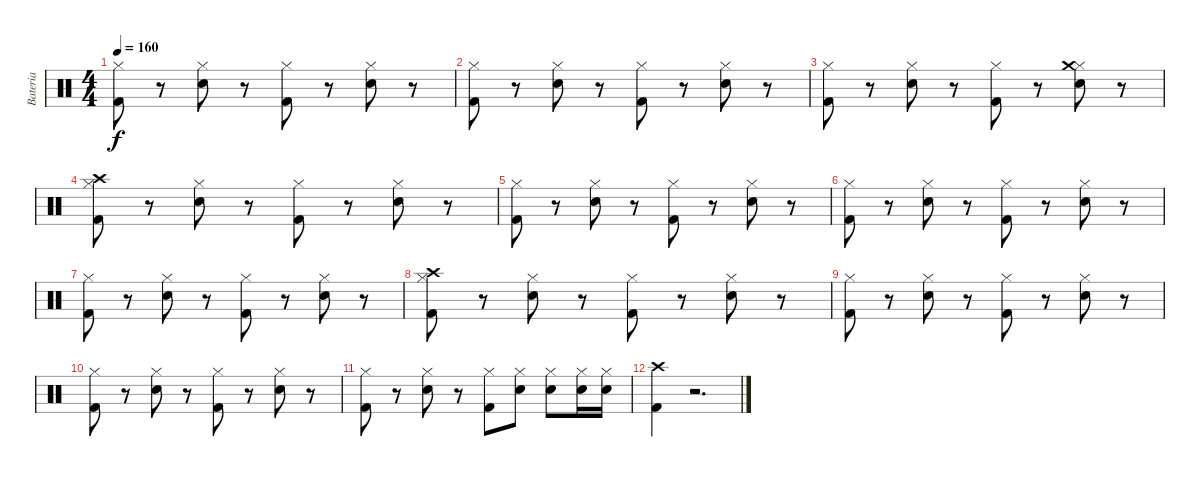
\track ("Bateria" "Bateria") {instrument percussion}
\staff {score}
\articulation defaults
\ts (4 4)
\tempo 160
\clef neutral
\ks c
("Hi-Hat (closed)" "Kick (hit) 2").8{dy f} r.8 ("Hi-Hat (closed)" "Snare (hit) 2").8 r.8 ("Hi-Hat (closed)" "Kick (hit) 2").8 r.8 ("Hi-Hat (closed)" "Snare (hit) 2").8 r.8 |
("Hi-Hat (closed)" "Kick (hit) 2").8 r.8 ("Hi-Hat (closed)" "Snare (hit) 2").8 r.8 ("Hi-Hat (closed)" "Kick (hit) 2").8 r.8 ("Hi-Hat (closed)" "Snare (hit) 2").8 r.8 |
("Hi-Hat (closed)" "Kick (hit) 2").8 r.8 ("Hi-Hat (closed)" "Snare (hit) 2").8 r.8 ("Hi-Hat (closed)" "Kick (hit) 2").8 r.8 ("Hi-Hat (closed)" "Crash medium (hit)" "Snare (hit) 2").8 r.8 |
("Hi-Hat (closed)" "Crash high (hit)" "Kick (hit) 2").8 r.8 ("Hi-Hat (closed)" "Snare (hit) 2").8 r.8 ("Hi-Hat (closed)" "Kick (hit) 2").8 r.8 ("Hi-Hat (closed)" "Snare (hit) 2").8 r.8 |
("Hi-Hat (closed)" "Kick (hit) 2").8 r.8 ("Hi-Hat (closed)" "Snare (hit) 2").8 r.8 ("Hi-Hat (closed)" "Kick (hit) 2").8 r.8 ("Hi-Hat (closed)" "Snare (hit) 2").8 r.8 |
("Hi-Hat (closed)" "Kick (hit) 2").8 r.8 ("Hi-Hat (closed)" "Snare (hit) 2").8 r.8 ("Hi-Hat (closed)" "Kick (hit) 2").8 r.8 ("Hi-Hat (closed)" "Snare (hit) 2").8 r.8 |
("Hi-Hat (closed)" "Kick (hit) 2").8 r.8 ("Hi-Hat (closed)" "Snare (hit) 2").8 r.8 ("Hi-Hat (closed)" "Kick (hit) 2").8 r.8 ("Hi-Hat (closed)" "Snare (hit) 2").8 r.8 |
("Hi-Hat (closed)" "Crash high (hit)" "Kick (hit) 2").8 r.8 ("Hi-Hat (closed)" "Snare (hit) 2").8 r.8 ("Hi-Hat (closed)" "Kick (hit) 2").8 r.8 ("Hi-Hat (closed)" "Snare (hit) 2").8 r.8 |
("Hi-Hat (closed)" "Kick (hit) 2").8 r.8 ("Hi-Hat (closed)" "Snare (hit) 2").8 r.8 ("Hi-Hat (closed)" "Kick (hit) 2").8 r.8 ("Hi-Hat (closed)" "Snare (hit) 2").8 r.8 |
("Hi-Hat (closed)" "Kick (hit) 2").8 r.8 ("Hi-Hat (closed)" "Snare (hit) 2").8 r.8 ("Hi-Hat (closed)" "Kick (hit) 2").8 r.8 ("Hi-Hat (closed)" "Snare (hit) 2").8 r.8 |
("Hi-Hat (closed)" "Kick (hit) 2").8 r.8 ("Hi-Hat (closed)" "Snare (hit) 2").8 r.8 ("Hi-Hat (closed)" "Kick (hit) 2").8 ("Hi-Hat (closed)" "Snare (hit) 2").8 ("Hi-Hat (closed)" "Snare (hit) 2").8 ("Hi-Hat (closed)" "Snare (hit) 2").16 ("Hi-Hat (closed)" "Snare (hit) 2").16 |
("Crash high (hit)" "Kick (hit) 2").4 r.2{d}
